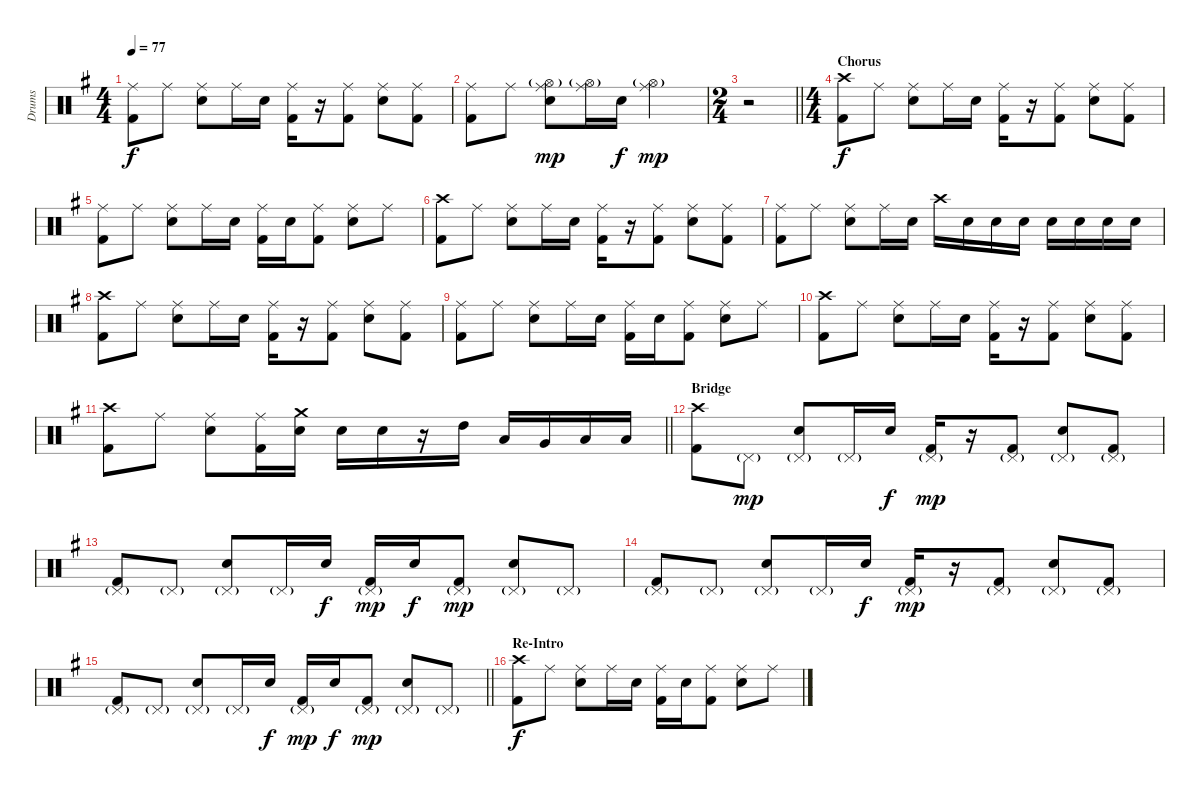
\track ("Drums" "Drums") {instrument percussion}
\staff {score}
\articulation defaults
\ts (4 4)
\tempo 77
\clef neutral
\ks eminor
("Ride (middle)" "Kick (hit) 2").8{dy f} "Ride (middle)".8 ("Ride (middle)" "Electric Snare (hit)").8 "Ride (middle)".16 "Electric Snare (hit)".16 ("Ride (middle)" "Kick (hit) 2").16 r.16 ("Ride (middle)" "Kick (hit) 2").8 ("Ride (middle)" "Electric Snare (hit)").8 ("Ride (middle)" "Kick (hit) 2").8 |
("Ride (middle)" "Kick (hit) 2").8 "Ride (middle)".8 ("Ride (middle)" "Hi-Hat (open)"{g} "Electric Snare (hit)").8{dy mp} ("Ride (middle)" "Hi-Hat (open)"{g}).16 "Electric Snare (hit)".16{dy f} ("Ride (middle)" "Hi-Hat (open)"{g}).2{dy mp} |
\ts (2 4)
\barLineRight lightlight
r.2 |
\ts (4 4)
\section ("" "Chorus")
("Crash high (hit)" "Kick (hit) 2").8{dy f} "Ride (middle)".8 ("Ride (middle)" "Electric Snare (hit)").8 "Ride (middle)".16 "Electric Snare (hit)".16 ("Ride (middle)" "Kick (hit) 2").16 r.16 ("Ride (middle)" "Kick (hit) 2").8 ("Ride (middle)" "Electric Snare (hit)").8 ("Ride (middle)" "Kick (hit) 2").8 |
("Ride (middle)" "Kick (hit) 2").8 "Ride (middle)".8 ("Ride (middle)" "Electric Snare (hit)").8 "Ride (middle)".16 "Electric Snare (hit)".16 ("Ride (middle)" "Kick (hit) 2").16 "Electric Snare (hit)".16 ("Ride (middle)" "Kick (hit) 2").8 ("Ride (middle)" "Electric Snare (hit)").8 "Ride (middle)".8 |
("Crash high (hit)" "Kick (hit) 2").8 "Ride (middle)".8 ("Ride (middle)" "Electric Snare (hit)").8 "Ride (middle)".16 "Electric Snare (hit)".16 ("Ride (middle)" "Kick (hit) 2").16 r.16 ("Ride (middle)" "Kick (hit) 2").8 ("Ride (middle)" "Electric Snare (hit)").8 ("Ride (middle)" "Kick (hit) 2").8 |
("Ride (middle)" "Kick (hit) 2").8 "Ride (middle)".8 ("Ride (middle)" "Electric Snare (hit)").8 "Ride (middle)".16 "Electric Snare (hit)".16 "Crash high (hit)".16 "Electric Snare (hit)".16 "Electric Snare (hit)".16 "Electric Snare (hit)".16 "Electric Snare (hit)".16 "Electric Snare (hit)".16 "Electric Snare (hit)".16 "Electric Snare (hit)".16 |
("Crash high (hit)" "Kick (hit) 2").8 "Ride (middle)".8 ("Ride (middle)" "Electric Snare (hit)").8 "Ride (middle)".16 "Electric Snare (hit)".16 ("Ride (middle)" "Kick (hit) 2").16 r.16 ("Ride (middle)" "Kick (hit) 2").8 ("Ride (middle)" "Electric Snare (hit)").8 ("Ride (middle)" "Kick (hit) 2").8 |
("Ride (middle)" "Kick (hit) 2").8 "Ride (middle)".8 ("Ride (middle)" "Electric Snare (hit)").8 "Ride (middle)".16 "Electric Snare (hit)".16 ("Ride (middle)" "Kick (hit) 2").16 "Electric Snare (hit)".16 ("Ride (middle)" "Kick (hit) 2").8 ("Ride (middle)" "Electric Snare (hit)").8 "Ride (middle)".8 |
("Crash high (hit)" "Kick (hit) 2").8 "Ride (middle)".8 ("Ride (middle)" "Electric Snare (hit)").8 "Ride (middle)".16 "Electric Snare (hit)".16 ("Ride (middle)" "Kick (hit) 2").16 r.16 ("Ride (middle)" "Kick (hit) 2").8 ("Ride (middle)" "Electric Snare (hit)").8 ("Ride (middle)" "Kick (hit) 2").8 |
\barLineRight lightlight
("Crash high (hit)" "Kick (hit) 2").8 "Ride (middle)".8 ("Ride (middle)" "Electric Snare (hit)").8 ("Ride (middle)" "Kick (hit) 2").16 ("Crash medium (hit)" "Electric Snare (hit)").16 "Electric Snare (hit)".16 "Electric Snare (hit)".16 r.16 "High Tom (hit)".16 "Low Tom (hit)".16 "Very Low Tom (hit)".16 "Low Floor Tom (hit)".16 "Low Floor Tom (hit)".16 |
\section ("" "Bridge")
("Crash high (hit)" "Kick (hit) 2").8 "Pedal Hi-Hat (hit)"{g}.8{dy mp} ("Pedal Hi-Hat (hit)"{g} "Electric Snare (hit)").8 "Pedal Hi-Hat (hit)"{g}.16 "Electric Snare (hit)".16{dy f} ("Pedal Hi-Hat (hit)"{g} "Kick (hit) 2").16{dy mp} r.16 ("Pedal Hi-Hat (hit)"{g} "Kick (hit) 2").8 ("Pedal Hi-Hat (hit)"{g} "Electric Snare (hit)").8 ("Pedal Hi-Hat (hit)"{g} "Kick (hit) 2").8 |
("Pedal Hi-Hat (hit)"{g} "Kick (hit) 2").8 "Pedal Hi-Hat (hit)"{g}.8 ("Pedal Hi-Hat (hit)"{g} "Electric Snare (hit)").8 "Pedal Hi-Hat (hit)"{g}.16 "Electric Snare (hit)".16{dy f} ("Pedal Hi-Hat (hit)"{g} "Kick (hit) 2").16{dy mp} "Electric Snare (hit)".16{dy f} ("Pedal Hi-Hat (hit)"{g} "Kick (hit) 2").8{dy mp} ("Pedal Hi-Hat (hit)"{g} "Electric Snare (hit)").8 "Pedal Hi-Hat (hit)"{g}.8 |
("Pedal Hi-Hat (hit)"{g} "Kick (hit) 2").8 "Pedal Hi-Hat (hit)"{g}.8 ("Pedal Hi-Hat (hit)"{g} "Electric Snare (hit)").8 "Pedal Hi-Hat (hit)"{g}.16 "Electric Snare (hit)".16{dy f} ("Pedal Hi-Hat (hit)"{g} "Kick (hit) 2").16{dy mp} r.16 ("Pedal Hi-Hat (hit)"{g} "Kick (hit) 2").8 ("Pedal Hi-Hat (hit)"{g} "Electric Snare (hit)").8 ("Pedal Hi-Hat (hit)"{g} "Kick (hit) 2").8 |
\barLineRight lightlight
("Pedal Hi-Hat (hit)"{g} "Kick (hit) 2").8 "Pedal Hi-Hat (hit)"{g}.8 ("Pedal Hi-Hat (hit)"{g} "Electric Snare (hit)").8 "Pedal Hi-Hat (hit)"{g}.16 "Electric Snare (hit)".16{dy f} ("Pedal Hi-Hat (hit)"{g} "Kick (hit) 2").16{dy mp} "Electric Snare (hit)".16{dy f} ("Pedal Hi-Hat (hit)"{g} "Kick (hit) 2").8{dy mp} ("Pedal Hi-Hat (hit)"{g} "Electric Snare (hit)").8 "Pedal Hi-Hat (hit)"{g}.8 |
\section ("" "Re-Intro")
("Crash high (hit)" "Kick (hit) 2").8{dy f volume 9} "Ride (middle)".8 ("Ride (middle)" "Electric Snare (hit)").8 "Ride (middle)".16 "Electric Snare (hit)".16 ("Ride (middle)" "Kick (hit) 2").16 "Electric Snare (hit)".16 ("Ride (middle)" "Kick (hit) 2").8 ("Ride (middle)" "Electric Snare (hit)").8 "Ride (middle)".8
